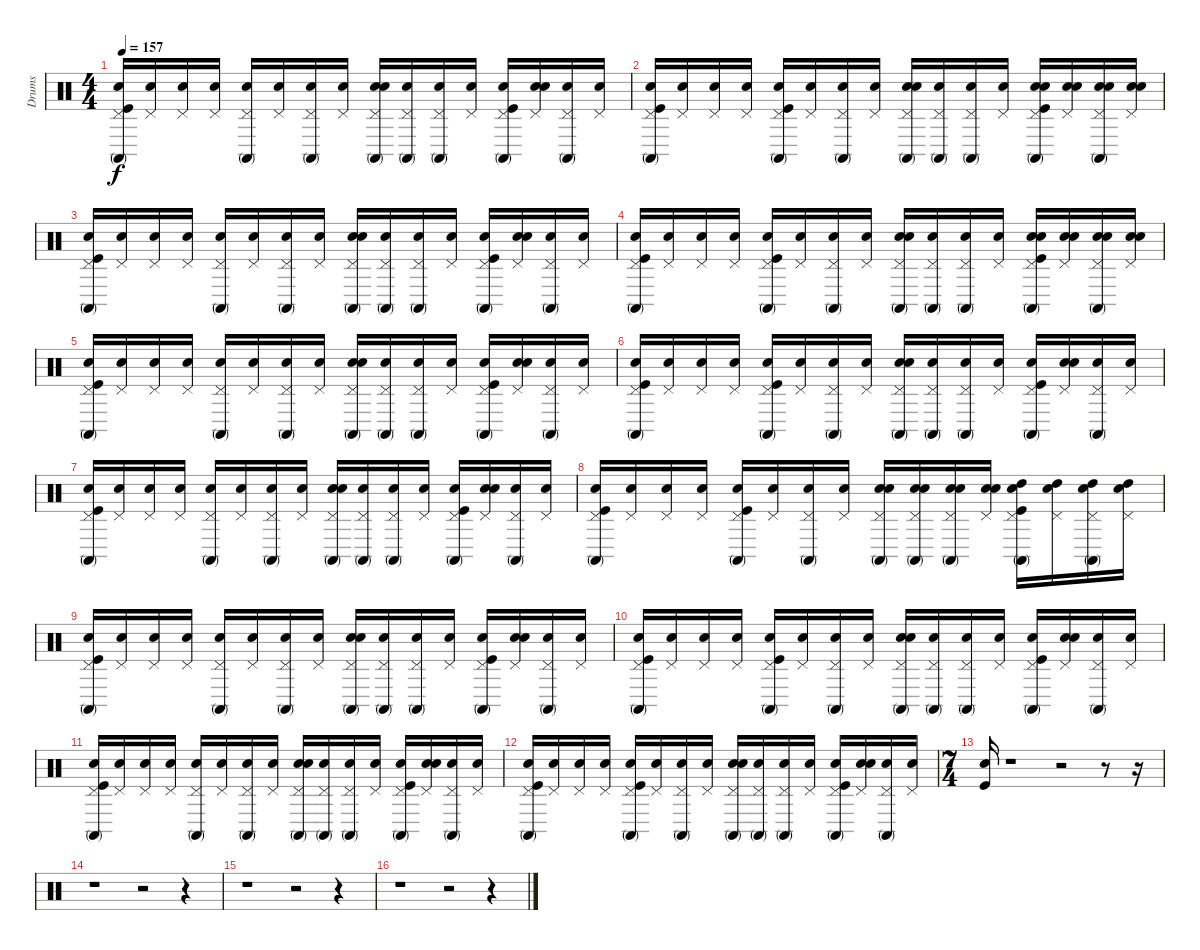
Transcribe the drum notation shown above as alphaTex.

\track ("Drums" "Drums") {instrument percussion}
\staff {score}
\articulation defaults
\ts (4 4)
\tempo 157
\clef neutral
\ks c
("Snare (hit)" "Pedal Hi-Hat (hit)" "Kick (hit)" "Conga high (mute)").16{dy f} ("Snare (hit)" "Pedal Hi-Hat (hit)").16 ("Snare (hit)" "Pedal Hi-Hat (hit)").16 ("Snare (hit)" "Pedal Hi-Hat (hit)").16 ("Snare (hit)" "Conga high (mute)" "Pedal Hi-Hat (hit)").16 ("Snare (hit)" "Pedal Hi-Hat (hit)").16 ("Snare (hit)" "Pedal Hi-Hat (hit)" "Conga high (mute)").16 ("Snare (hit)" "Pedal Hi-Hat (hit)").16 ("Snare (hit)" "Conga high (mute)" "Pedal Hi-Hat (hit)" "Snare (hit) 2").16 ("Snare (hit)" "Conga high (mute)" "Pedal Hi-Hat (hit)").16 ("Snare (hit)" "Pedal Hi-Hat (hit)" "Conga high (mute)").16 ("Snare (hit)" "Pedal Hi-Hat (hit)").16 ("Snare (hit)" "Conga high (mute)" "Pedal Hi-Hat (hit)" "Kick (hit)").16 ("Snare (hit)" "Pedal Hi-Hat (hit)" "Snare (hit) 2").16 ("Snare (hit)" "Pedal Hi-Hat (hit)" "Conga high (mute)").16 ("Snare (hit)" "Pedal Hi-Hat (hit)").16 |
("Snare (hit)" "Conga high (mute)" "Kick (hit)" "Pedal Hi-Hat (hit)").16 ("Snare (hit)" "Pedal Hi-Hat (hit)").16 ("Snare (hit)" "Pedal Hi-Hat (hit)").16 ("Snare (hit)" "Pedal Hi-Hat (hit)").16 ("Snare (hit)" "Kick (hit)" "Conga high (mute)" "Pedal Hi-Hat (hit)").16 ("Snare (hit)" "Pedal Hi-Hat (hit)").16 ("Snare (hit)" "Conga high (mute)" "Pedal Hi-Hat (hit)").16 ("Snare (hit)" "Pedal Hi-Hat (hit)").16 ("Snare (hit)" "Snare (hit) 2" "Conga high (mute)" "Pedal Hi-Hat (hit)").16 ("Snare (hit)" "Pedal Hi-Hat (hit)" "Conga high (mute)").16 ("Snare (hit)" "Pedal Hi-Hat (hit)" "Conga high (mute)").16 ("Snare (hit)" "Pedal Hi-Hat (hit)").16 ("Snare (hit)" "Snare (hit) 2" "Conga high (mute)" "Kick (hit)" "Pedal Hi-Hat (hit)").16 ("Snare (hit)" "Snare (hit) 2" "Pedal Hi-Hat (hit)").16 ("Snare (hit)" "Pedal Hi-Hat (hit)" "Conga high (mute)" "Snare (hit) 2").16 ("Snare (hit)" "Pedal Hi-Hat (hit)" "Snare (hit) 2").16 |
("Snare (hit)" "Conga high (mute)" "Pedal Hi-Hat (hit)" "Kick (hit)").16 ("Snare (hit)" "Pedal Hi-Hat (hit)").16 ("Snare (hit)" "Pedal Hi-Hat (hit)").16 ("Snare (hit)" "Pedal Hi-Hat (hit)").16 ("Snare (hit)" "Conga high (mute)" "Pedal Hi-Hat (hit)").16 ("Snare (hit)" "Pedal Hi-Hat (hit)").16 ("Snare (hit)" "Pedal Hi-Hat (hit)" "Conga high (mute)").16 ("Snare (hit)" "Pedal Hi-Hat (hit)").16 ("Snare (hit)" "Pedal Hi-Hat (hit)" "Snare (hit) 2" "Conga high (mute)").16 ("Snare (hit)" "Conga high (mute)" "Pedal Hi-Hat (hit)").16 ("Snare (hit)" "Conga high (mute)" "Pedal Hi-Hat (hit)").16 ("Snare (hit)" "Pedal Hi-Hat (hit)").16 ("Snare (hit)" "Pedal Hi-Hat (hit)" "Kick (hit)" "Conga high (mute)").16 ("Snare (hit)" "Snare (hit) 2" "Pedal Hi-Hat (hit)").16 ("Snare (hit)" "Pedal Hi-Hat (hit)" "Conga high (mute)").16 ("Snare (hit)" "Pedal Hi-Hat (hit)").16 |
("Snare (hit)" "Conga high (mute)" "Kick (hit)" "Pedal Hi-Hat (hit)").16 ("Snare (hit)" "Pedal Hi-Hat (hit)").16 ("Snare (hit)" "Pedal Hi-Hat (hit)").16 ("Snare (hit)" "Pedal Hi-Hat (hit)").16 ("Snare (hit)" "Conga high (mute)" "Pedal Hi-Hat (hit)" "Kick (hit)").16 ("Snare (hit)" "Pedal Hi-Hat (hit)").16 ("Snare (hit)" "Conga high (mute)" "Pedal Hi-Hat (hit)").16 ("Snare (hit)" "Pedal Hi-Hat (hit)").16 ("Snare (hit)" "Snare (hit) 2" "Pedal Hi-Hat (hit)" "Conga high (mute)").16 ("Snare (hit)" "Conga high (mute)" "Pedal Hi-Hat (hit)").16 ("Snare (hit)" "Pedal Hi-Hat (hit)" "Conga high (mute)").16 ("Snare (hit)" "Pedal Hi-Hat (hit)").16 ("Snare (hit)" "Snare (hit) 2" "Pedal Hi-Hat (hit)" "Conga high (mute)" "Kick (hit)").16 ("Snare (hit)" "Snare (hit) 2" "Pedal Hi-Hat (hit)").16 ("Snare (hit)" "Conga high (mute)" "Pedal Hi-Hat (hit)" "Snare (hit) 2").16 ("Snare (hit)" "Snare (hit) 2" "Pedal Hi-Hat (hit)").16 |
("Snare (hit)" "Conga high (mute)" "Pedal Hi-Hat (hit)" "Kick (hit)").16 ("Snare (hit)" "Pedal Hi-Hat (hit)").16 ("Snare (hit)" "Pedal Hi-Hat (hit)").16 ("Snare (hit)" "Pedal Hi-Hat (hit)").16 ("Snare (hit)" "Conga high (mute)" "Pedal Hi-Hat (hit)").16 ("Snare (hit)" "Pedal Hi-Hat (hit)").16 ("Snare (hit)" "Conga high (mute)" "Pedal Hi-Hat (hit)").16 ("Snare (hit)" "Pedal Hi-Hat (hit)").16 ("Snare (hit)" "Snare (hit) 2" "Conga high (mute)" "Pedal Hi-Hat (hit)").16 ("Snare (hit)" "Pedal Hi-Hat (hit)" "Conga high (mute)").16 ("Snare (hit)" "Pedal Hi-Hat (hit)" "Conga high (mute)").16 ("Snare (hit)" "Pedal Hi-Hat (hit)").16 ("Snare (hit)" "Kick (hit)" "Conga high (mute)" "Pedal Hi-Hat (hit)").16 ("Snare (hit)" "Pedal Hi-Hat (hit)" "Snare (hit) 2").16 ("Snare (hit)" "Conga high (mute)" "Pedal Hi-Hat (hit)").16 ("Snare (hit)" "Pedal Hi-Hat (hit)").16 |
("Snare (hit)" "Kick (hit)" "Pedal Hi-Hat (hit)" "Conga high (mute)").16 ("Snare (hit)" "Pedal Hi-Hat (hit)").16 ("Snare (hit)" "Pedal Hi-Hat (hit)").16 ("Snare (hit)" "Pedal Hi-Hat (hit)").16 ("Snare (hit)" "Conga high (mute)" "Pedal Hi-Hat (hit)" "Kick (hit)").16 ("Snare (hit)" "Pedal Hi-Hat (hit)").16 ("Snare (hit)" "Pedal Hi-Hat (hit)" "Conga high (mute)").16 ("Snare (hit)" "Pedal Hi-Hat (hit)").16 ("Snare (hit)" "Pedal Hi-Hat (hit)" "Conga high (mute)" "Snare (hit) 2").16 ("Snare (hit)" "Pedal Hi-Hat (hit)" "Conga high (mute)").16 ("Snare (hit)" "Conga high (mute)" "Pedal Hi-Hat (hit)").16 ("Snare (hit)" "Pedal Hi-Hat (hit)").16 ("Snare (hit)" "Pedal Hi-Hat (hit)" "Kick (hit)" "Conga high (mute)").16 ("Snare (hit)" "Snare (hit) 2" "Pedal Hi-Hat (hit)").16 ("Snare (hit)" "Pedal Hi-Hat (hit)" "Conga high (mute)").16 ("Snare (hit)" "Pedal Hi-Hat (hit)").16 |
("Snare (hit)" "Kick (hit)" "Pedal Hi-Hat (hit)" "Conga high (mute)").16 ("Snare (hit)" "Pedal Hi-Hat (hit)").16 ("Snare (hit)" "Pedal Hi-Hat (hit)").16 ("Snare (hit)" "Pedal Hi-Hat (hit)").16 ("Snare (hit)" "Conga high (mute)" "Pedal Hi-Hat (hit)").16 ("Snare (hit)" "Pedal Hi-Hat (hit)").16 ("Snare (hit)" "Conga high (mute)" "Pedal Hi-Hat (hit)").16 ("Snare (hit)" "Pedal Hi-Hat (hit)").16 ("Snare (hit)" "Snare (hit) 2" "Conga high (mute)" "Pedal Hi-Hat (hit)").16 ("Snare (hit)" "Conga high (mute)" "Pedal Hi-Hat (hit)").16 ("Snare (hit)" "Conga high (mute)" "Pedal Hi-Hat (hit)").16 ("Snare (hit)" "Pedal Hi-Hat (hit)").16 ("Snare (hit)" "Pedal Hi-Hat (hit)" "Kick (hit)" "Conga high (mute)").16 ("Snare (hit)" "Snare (hit) 2" "Pedal Hi-Hat (hit)").16 ("Snare (hit)" "Pedal Hi-Hat (hit)" "Conga high (mute)").16 ("Snare (hit)" "Pedal Hi-Hat (hit)").16 |
("Snare (hit)" "Pedal Hi-Hat (hit)" "Kick (hit)" "Conga high (mute)").16 ("Snare (hit)" "Pedal Hi-Hat (hit)").16 ("Snare (hit)" "Pedal Hi-Hat (hit)").16 ("Snare (hit)" "Pedal Hi-Hat (hit)").16 ("Snare (hit)" "Kick (hit)" "Conga high (mute)" "Pedal Hi-Hat (hit)").16 ("Snare (hit)" "Pedal Hi-Hat (hit)").16 ("Snare (hit)" "Conga high (mute)" "Pedal Hi-Hat (hit)").16 ("Snare (hit)" "Pedal Hi-Hat (hit)").16 ("Snare (hit)" "Conga high (mute)" "Pedal Hi-Hat (hit)" "Snare (hit) 2").16 ("Snare (hit)" "Snare (hit) 2" "Pedal Hi-Hat (hit)" "Conga high (mute)").16 ("Snare (hit)" "Pedal Hi-Hat (hit)" "Snare (hit) 2" "Conga high (mute)").16 ("Snare (hit)" "Pedal Hi-Hat (hit)" "Snare (hit) 2").16 ("Snare (hit)" "Pedal Hi-Hat (hit)" "Kick (hit)" "Conga high (mute)" "High Tom (hit)").16 ("Snare (hit)" "High Tom (hit)" "Pedal Hi-Hat (hit)").16 ("Snare (hit)" "High Tom (hit)" "Conga high (mute)" "Pedal Hi-Hat (hit)").16 ("Snare (hit)" "Pedal Hi-Hat (hit)" "High Tom (hit)").16 |
("Snare (hit)" "Kick (hit)" "Pedal Hi-Hat (hit)" "Conga high (mute)").16 ("Snare (hit)" "Pedal Hi-Hat (hit)").16 ("Snare (hit)" "Pedal Hi-Hat (hit)").16 ("Snare (hit)" "Pedal Hi-Hat (hit)").16 ("Snare (hit)" "Pedal Hi-Hat (hit)" "Conga high (mute)").16 ("Snare (hit)" "Pedal Hi-Hat (hit)").16 ("Snare (hit)" "Conga high (mute)" "Pedal Hi-Hat (hit)").16 ("Snare (hit)" "Pedal Hi-Hat (hit)").16 ("Snare (hit)" "Pedal Hi-Hat (hit)" "Snare (hit) 2" "Conga high (mute)").16 ("Snare (hit)" "Conga high (mute)" "Pedal Hi-Hat (hit)").16 ("Snare (hit)" "Pedal Hi-Hat (hit)" "Conga high (mute)").16 ("Snare (hit)" "Pedal Hi-Hat (hit)").16 ("Snare (hit)" "Pedal Hi-Hat (hit)" "Conga high (mute)" "Kick (hit)").16 ("Snare (hit)" "Pedal Hi-Hat (hit)" "Snare (hit) 2").16 ("Snare (hit)" "Conga high (mute)" "Pedal Hi-Hat (hit)").16 ("Snare (hit)" "Pedal Hi-Hat (hit)").16 |
("Snare (hit)" "Kick (hit)" "Pedal Hi-Hat (hit)" "Conga high (mute)").16 ("Snare (hit)" "Pedal Hi-Hat (hit)").16 ("Snare (hit)" "Pedal Hi-Hat (hit)").16 ("Snare (hit)" "Pedal Hi-Hat (hit)").16 ("Snare (hit)" "Kick (hit)" "Pedal Hi-Hat (hit)" "Conga high (mute)").16 ("Snare (hit)" "Pedal Hi-Hat (hit)").16 ("Snare (hit)" "Pedal Hi-Hat (hit)" "Conga high (mute)").16 ("Snare (hit)" "Pedal Hi-Hat (hit)").16 ("Snare (hit)" "Pedal Hi-Hat (hit)" "Conga high (mute)" "Snare (hit) 2").16 ("Snare (hit)" "Conga high (mute)" "Pedal Hi-Hat (hit)").16 ("Snare (hit)" "Pedal Hi-Hat (hit)" "Conga high (mute)").16 ("Snare (hit)" "Pedal Hi-Hat (hit)").16 ("Snare (hit)" "Pedal Hi-Hat (hit)" "Conga high (mute)" "Kick (hit)").16 ("Snare (hit)" "Pedal Hi-Hat (hit)" "Snare (hit) 2").16 ("Snare (hit)" "Conga high (mute)" "Pedal Hi-Hat (hit)").16 ("Snare (hit)" "Pedal Hi-Hat (hit)").16 |
("Snare (hit)" "Conga high (mute)" "Pedal Hi-Hat (hit)" "Kick (hit)").16 ("Snare (hit)" "Pedal Hi-Hat (hit)").16 ("Snare (hit)" "Pedal Hi-Hat (hit)").16 ("Snare (hit)" "Pedal Hi-Hat (hit)").16 ("Snare (hit)" "Conga high (mute)" "Pedal Hi-Hat (hit)").16 ("Snare (hit)" "Pedal Hi-Hat (hit)").16 ("Snare (hit)" "Conga high (mute)" "Pedal Hi-Hat (hit)").16 ("Snare (hit)" "Pedal Hi-Hat (hit)").16 ("Snare (hit)" "Pedal Hi-Hat (hit)" "Snare (hit) 2" "Conga high (mute)").16 ("Snare (hit)" "Conga high (mute)" "Pedal Hi-Hat (hit)").16 ("Snare (hit)" "Pedal Hi-Hat (hit)" "Conga high (mute)").16 ("Snare (hit)" "Pedal Hi-Hat (hit)").16 ("Snare (hit)" "Conga high (mute)" "Pedal Hi-Hat (hit)" "Kick (hit)").16 ("Snare (hit)" "Snare (hit) 2" "Pedal Hi-Hat (hit)").16 ("Snare (hit)" "Pedal Hi-Hat (hit)" "Conga high (mute)").16 ("Snare (hit)" "Pedal Hi-Hat (hit)").16 |
("Snare (hit)" "Pedal Hi-Hat (hit)" "Conga high (mute)" "Kick (hit)").16 ("Snare (hit)" "Pedal Hi-Hat (hit)").16 ("Snare (hit)" "Pedal Hi-Hat (hit)").16 ("Snare (hit)" "Pedal Hi-Hat (hit)").16 ("Snare (hit)" "Conga high (mute)" "Kick (hit)" "Pedal Hi-Hat (hit)").16 ("Snare (hit)" "Pedal Hi-Hat (hit)").16 ("Snare (hit)" "Conga high (mute)" "Pedal Hi-Hat (hit)").16 ("Snare (hit)" "Pedal Hi-Hat (hit)").16 ("Snare (hit)" "Snare (hit) 2" "Pedal Hi-Hat (hit)" "Conga high (mute)").16 ("Snare (hit)" "Pedal Hi-Hat (hit)" "Conga high (mute)").16 ("Snare (hit)" "Pedal Hi-Hat (hit)" "Conga high (mute)").16 ("Snare (hit)" "Pedal Hi-Hat (hit)").16 ("Snare (hit)" "Conga high (mute)" "Pedal Hi-Hat (hit)" "Kick (hit)").16 ("Snare (hit)" "Snare (hit) 2" "Pedal Hi-Hat (hit)").16 ("Snare (hit)" "Pedal Hi-Hat (hit)" "Conga high (mute)").16 ("Snare (hit)" "Pedal Hi-Hat (hit)").16 |
\ts (7 4)
("Snare (hit)" "Kick (hit)").16 r.1 r.2 r.8 r.16 |
r.1 r.2 r.4 |
r.1 r.2 r.4 |
r.1 r.2 r.4
